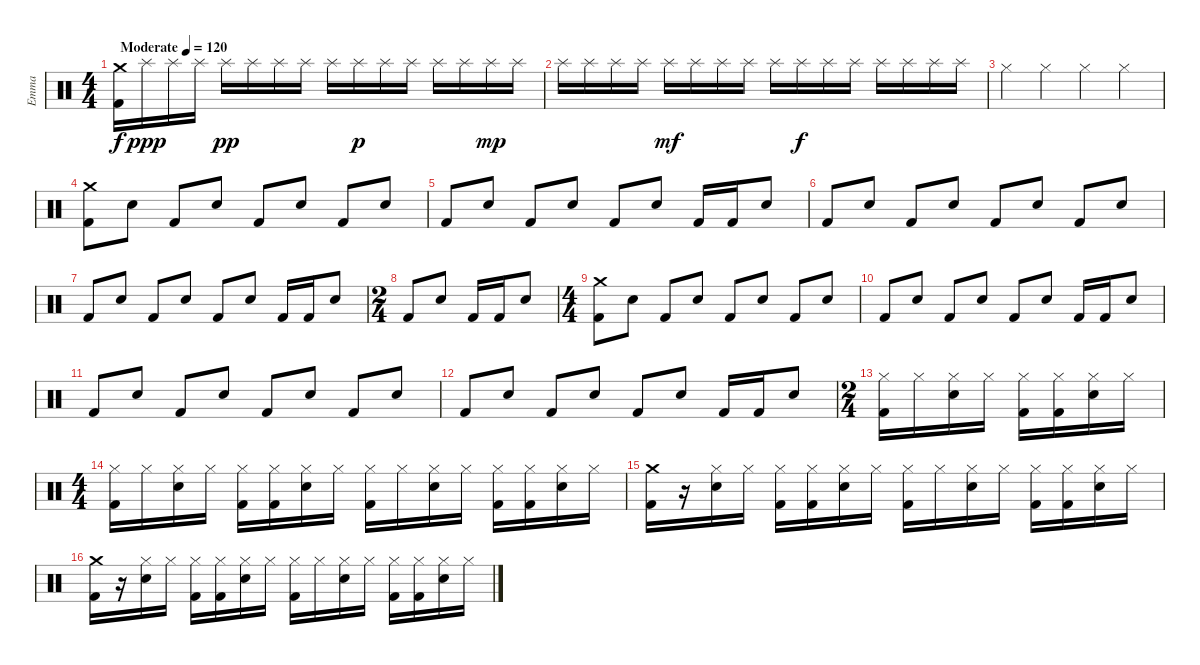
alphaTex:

\track ("Emma" "Emma") {instrument percussion}
\staff {score}
\articulation defaults
\ts (4 4)
\tempo (120 "Moderate")
\clef neutral
\ks c
("Crash medium (hit)" "Kick (hit) 2").16{dy f} "Splash (hit)".16{dy ppp} "Splash (hit)".16 "Splash (hit)".16 "Splash (hit)".16{dy pp} "Splash (hit)".16 "Splash (hit)".16 "Splash (hit)".16 "Splash (hit)".16 "Splash (hit)".16{dy p} "Splash (hit)".16 "Splash (hit)".16 "Splash (hit)".16 "Splash (hit)".16 "Splash (hit)".16{dy mp} "Splash (hit)".16 |
"Splash (hit)".16 "Splash (hit)".16 "Splash (hit)".16 "Splash (hit)".16 "Splash (hit)".16{dy mf} "Splash (hit)".16 "Splash (hit)".16 "Splash (hit)".16 "Splash (hit)".16 "Splash (hit)".16{dy f} "Splash (hit)".16 "Splash (hit)".16 "Splash (hit)".16 "Splash (hit)".16 "Splash (hit)".16 "Splash (hit)".16 |
"Hi-Hat (closed)".4 "Hi-Hat (closed)".4 "Hi-Hat (closed)".4 "Hi-Hat (closed)".4 |
("Crash medium (hit)" "Kick (hit) 2").8 "Electric Snare (hit)".8 "Kick (hit) 2".8 "Electric Snare (hit)".8 "Kick (hit) 2".8 "Electric Snare (hit)".8 "Kick (hit) 2".8 "Electric Snare (hit)".8 |
"Kick (hit) 2".8 "Electric Snare (hit)".8 "Kick (hit) 2".8 "Electric Snare (hit)".8 "Kick (hit) 2".8 "Electric Snare (hit)".8 "Kick (hit) 2".16 "Kick (hit) 2".16 "Electric Snare (hit)".8 |
"Kick (hit) 2".8 "Electric Snare (hit)".8 "Kick (hit) 2".8 "Electric Snare (hit)".8 "Kick (hit) 2".8 "Electric Snare (hit)".8 "Kick (hit) 2".8 "Electric Snare (hit)".8 |
"Kick (hit) 2".8 "Electric Snare (hit)".8 "Kick (hit) 2".8 "Electric Snare (hit)".8 "Kick (hit) 2".8 "Electric Snare (hit)".8 "Kick (hit) 2".16 "Kick (hit) 2".16 "Electric Snare (hit)".8 |
\ts (2 4)
"Kick (hit) 2".8 "Electric Snare (hit)".8 "Kick (hit) 2".16 "Kick (hit) 2".16 "Electric Snare (hit)".8 |
\ts (4 4)
("Crash medium (hit)" "Kick (hit) 2").8 "Electric Snare (hit)".8 "Kick (hit) 2".8 "Electric Snare (hit)".8 "Kick (hit) 2".8 "Electric Snare (hit)".8 "Kick (hit) 2".8 "Electric Snare (hit)".8 |
"Kick (hit) 2".8 "Electric Snare (hit)".8 "Kick (hit) 2".8 "Electric Snare (hit)".8 "Kick (hit) 2".8 "Electric Snare (hit)".8 "Kick (hit) 2".16 "Kick (hit) 2".16 "Electric Snare (hit)".8 |
"Kick (hit) 2".8 "Electric Snare (hit)".8 "Kick (hit) 2".8 "Electric Snare (hit)".8 "Kick (hit) 2".8 "Electric Snare (hit)".8 "Kick (hit) 2".8 "Electric Snare (hit)".8 |
"Kick (hit) 2".8 "Electric Snare (hit)".8 "Kick (hit) 2".8 "Electric Snare (hit)".8 "Kick (hit) 2".8 "Electric Snare (hit)".8 "Kick (hit) 2".16 "Kick (hit) 2".16 "Electric Snare (hit)".8 |
\ts (2 4)
("Hi-Hat (closed)" "Kick (hit) 2").16 "Hi-Hat (closed)".16 ("Hi-Hat (closed)" "Electric Snare (hit)").16 "Hi-Hat (closed)".16 ("Hi-Hat (closed)" "Kick (hit) 2").16 ("Hi-Hat (closed)" "Kick (hit) 2").16 ("Hi-Hat (closed)" "Electric Snare (hit)").16 "Hi-Hat (closed)".16 |
\ts (4 4)
("Hi-Hat (closed)" "Kick (hit) 2").16 "Hi-Hat (closed)".16 ("Hi-Hat (closed)" "Electric Snare (hit)").16 "Hi-Hat (closed)".16 ("Hi-Hat (closed)" "Kick (hit) 2").16 ("Hi-Hat (closed)" "Kick (hit) 2").16 ("Hi-Hat (closed)" "Electric Snare (hit)").16 "Hi-Hat (closed)".16 ("Hi-Hat (closed)" "Kick (hit) 2").16 "Hi-Hat (closed)".16 ("Hi-Hat (closed)" "Electric Snare (hit)").16 "Hi-Hat (closed)".16 ("Hi-Hat (closed)" "Kick (hit) 2").16 ("Hi-Hat (closed)" "Kick (hit) 2").16 ("Hi-Hat (closed)" "Electric Snare (hit)").16 "Hi-Hat (closed)".16 |
("Crash medium (hit)" "Kick (hit) 2").16 r.16 ("Hi-Hat (closed)" "Electric Snare (hit)").16 "Hi-Hat (closed)".16 ("Hi-Hat (closed)" "Kick (hit) 2").16 ("Hi-Hat (closed)" "Kick (hit) 2").16 ("Hi-Hat (closed)" "Electric Snare (hit)").16 "Hi-Hat (closed)".16 ("Hi-Hat (closed)" "Kick (hit) 2").16 "Hi-Hat (closed)".16 ("Hi-Hat (closed)" "Electric Snare (hit)").16 "Hi-Hat (closed)".16 ("Hi-Hat (closed)" "Kick (hit) 2").16 ("Hi-Hat (closed)" "Kick (hit) 2").16 ("Hi-Hat (closed)" "Electric Snare (hit)").16 "Hi-Hat (closed)".16 |
("Crash medium (hit)" "Kick (hit) 2").16 r.16 ("Hi-Hat (closed)" "Electric Snare (hit)").16 "Hi-Hat (closed)".16 ("Hi-Hat (closed)" "Kick (hit) 2").16 ("Hi-Hat (closed)" "Kick (hit) 2").16 ("Hi-Hat (closed)" "Electric Snare (hit)").16 "Hi-Hat (closed)".16 ("Hi-Hat (closed)" "Kick (hit) 2").16 "Hi-Hat (closed)".16 ("Hi-Hat (closed)" "Electric Snare (hit)").16 "Hi-Hat (closed)".16 ("Hi-Hat (closed)" "Kick (hit) 2").16 ("Hi-Hat (closed)" "Kick (hit) 2").16 ("Hi-Hat (closed)" "Electric Snare (hit)").16 "Hi-Hat (closed)".16
